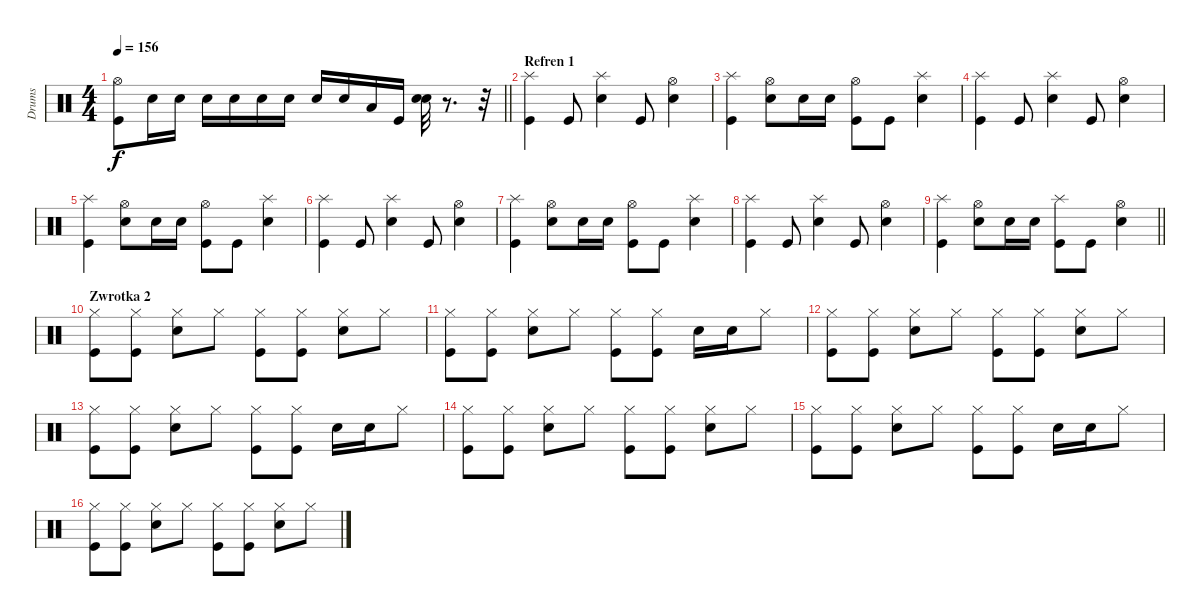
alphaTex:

\track ("Drums" "Drums") {instrument percussion}
\staff {score}
\articulation defaults
\ts (4 4)
\tempo 156
\clef neutral
\barLineRight lightlight
\ks c
("Hi-Hat (open)" "Kick (hit)").8{dy f} "Snare (hit) 2".16 "Snare (hit) 2".16 "Snare (hit) 2".16 "Snare (hit) 2".16 "Snare (hit) 2".16 "Snare (hit) 2".16 "Snare (hit) 2".16 "Snare (hit) 2".16 "Low Tom (hit)".16 "Kick (hit)".16 ("Snare (hit) 2" "Snare (hit) 2").32 r.8{d} r.32 |
\section ("" "Refren 1")
("Splash (hit)" "Kick (hit)").4 "Kick (hit)".8 ("Splash (hit)" "Snare (hit) 2").4 "Kick (hit)".8 ("Hi-Hat (open)" "Snare (hit) 2").4 |
("Splash (hit)" "Kick (hit)").4 ("Hi-Hat (open)" "Snare (hit) 2").8 "Snare (hit) 2".16 "Snare (hit) 2".16 ("Hi-Hat (open)" "Kick (hit)").8 "Kick (hit)".8 ("Splash (hit)" "Snare (hit) 2").4 |
("Splash (hit)" "Kick (hit)").4 "Kick (hit)".8 ("Splash (hit)" "Snare (hit) 2").4 "Kick (hit)".8 ("Hi-Hat (open)" "Snare (hit) 2").4 |
("Splash (hit)" "Kick (hit)").4 ("Hi-Hat (open)" "Snare (hit) 2").8 "Snare (hit) 2".16 "Snare (hit) 2".16 ("Hi-Hat (open)" "Kick (hit)").8 "Kick (hit)".8 ("Splash (hit)" "Snare (hit) 2").4 |
("Splash (hit)" "Kick (hit)").4 "Kick (hit)".8 ("Splash (hit)" "Snare (hit) 2").4 "Kick (hit)".8 ("Hi-Hat (open)" "Snare (hit) 2").4 |
("Splash (hit)" "Kick (hit)").4 ("Hi-Hat (open)" "Snare (hit) 2").8 "Snare (hit) 2".16 "Snare (hit) 2".16 ("Hi-Hat (open)" "Kick (hit)").8 "Kick (hit)".8 ("Splash (hit)" "Snare (hit) 2").4 |
("Splash (hit)" "Kick (hit)").4 "Kick (hit)".8 ("Splash (hit)" "Snare (hit) 2").4 "Kick (hit)".8 ("Hi-Hat (open)" "Snare (hit) 2").4 |
\barLineRight lightlight
("Splash (hit)" "Kick (hit)").4 ("Hi-Hat (open)" "Snare (hit) 2").8 "Snare (hit) 2".16 "Snare (hit) 2".16 ("Splash (hit)" "Kick (hit)").8 "Kick (hit)".8 ("Hi-Hat (open)" "Snare (hit) 2").4 |
\section ("" "Zwrotka 2")
("Hi-Hat (closed)" "Kick (hit)").8 ("Hi-Hat (closed)" "Kick (hit)").8 ("Hi-Hat (closed)" "Snare (hit) 2").8 "Hi-Hat (closed)".8 ("Hi-Hat (closed)" "Kick (hit)").8 ("Hi-Hat (closed)" "Kick (hit)").8 ("Hi-Hat (closed)" "Snare (hit) 2").8 "Hi-Hat (closed)".8 |
("Hi-Hat (closed)" "Kick (hit)").8 ("Hi-Hat (closed)" "Kick (hit)").8 ("Hi-Hat (closed)" "Snare (hit) 2").8 "Hi-Hat (closed)".8 ("Hi-Hat (closed)" "Kick (hit)").8 ("Hi-Hat (closed)" "Kick (hit)").8 "Snare (hit) 2".16 "Snare (hit) 2".16 "Hi-Hat (closed)".8 |
("Hi-Hat (closed)" "Kick (hit)").8 ("Hi-Hat (closed)" "Kick (hit)").8 ("Hi-Hat (closed)" "Snare (hit) 2").8 "Hi-Hat (closed)".8 ("Hi-Hat (closed)" "Kick (hit)").8 ("Hi-Hat (closed)" "Kick (hit)").8 ("Hi-Hat (closed)" "Snare (hit) 2").8 "Hi-Hat (closed)".8 |
("Hi-Hat (closed)" "Kick (hit)").8 ("Hi-Hat (closed)" "Kick (hit)").8 ("Hi-Hat (closed)" "Snare (hit) 2").8 "Hi-Hat (closed)".8 ("Hi-Hat (closed)" "Kick (hit)").8 ("Hi-Hat (closed)" "Kick (hit)").8 "Snare (hit) 2".16 "Snare (hit) 2".16 "Hi-Hat (closed)".8 |
("Hi-Hat (closed)" "Kick (hit)").8 ("Hi-Hat (closed)" "Kick (hit)").8 ("Hi-Hat (closed)" "Snare (hit) 2").8 "Hi-Hat (closed)".8 ("Hi-Hat (closed)" "Kick (hit)").8 ("Hi-Hat (closed)" "Kick (hit)").8 ("Hi-Hat (closed)" "Snare (hit) 2").8 "Hi-Hat (closed)".8 |
("Hi-Hat (closed)" "Kick (hit)").8 ("Hi-Hat (closed)" "Kick (hit)").8 ("Hi-Hat (closed)" "Snare (hit) 2").8 "Hi-Hat (closed)".8 ("Hi-Hat (closed)" "Kick (hit)").8 ("Hi-Hat (closed)" "Kick (hit)").8 "Snare (hit) 2".16 "Snare (hit) 2".16 "Hi-Hat (closed)".8 |
("Hi-Hat (closed)" "Kick (hit)").8 ("Hi-Hat (closed)" "Kick (hit)").8 ("Hi-Hat (closed)" "Snare (hit) 2").8 "Hi-Hat (closed)".8 ("Hi-Hat (closed)" "Kick (hit)").8 ("Hi-Hat (closed)" "Kick (hit)").8 ("Hi-Hat (closed)" "Snare (hit) 2").8 "Hi-Hat (closed)".8
